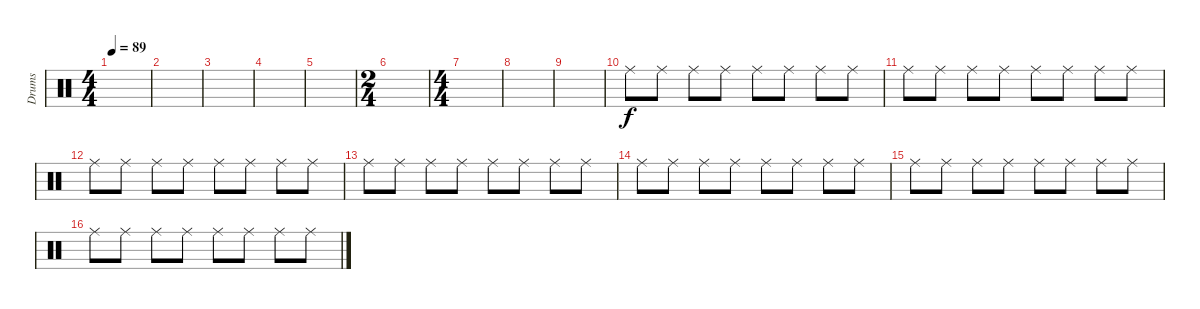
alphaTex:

\track ("Drums" "Drums") {instrument percussion}
\staff {score}
\articulation defaults
\ts (4 4)
\tempo 89
\clef neutral
\ks c
|
|
|
|
|
\ts (2 4)
|
\ts (4 4)
|
|
|
"Ride (middle)".8 "Ride (middle)".8 "Ride (middle)".8 "Ride (middle)".8 "Ride (middle)".8 "Ride (middle)".8 "Ride (middle)".8 "Ride (middle)".8 |
"Ride (middle)".8 "Ride (middle)".8 "Ride (middle)".8 "Ride (middle)".8 "Ride (middle)".8 "Ride (middle)".8 "Ride (middle)".8 "Ride (middle)".8 |
"Ride (middle)".8 "Ride (middle)".8 "Ride (middle)".8 "Ride (middle)".8 "Ride (middle)".8 "Ride (middle)".8 "Ride (middle)".8 "Ride (middle)".8 |
"Ride (middle)".8 "Ride (middle)".8 "Ride (middle)".8 "Ride (middle)".8 "Ride (middle)".8 "Ride (middle)".8 "Ride (middle)".8 "Ride (middle)".8 |
"Ride (middle)".8 "Ride (middle)".8 "Ride (middle)".8 "Ride (middle)".8 "Ride (middle)".8 "Ride (middle)".8 "Ride (middle)".8 "Ride (middle)".8 |
"Ride (middle)".8 "Ride (middle)".8 "Ride (middle)".8 "Ride (middle)".8 "Ride (middle)".8 "Ride (middle)".8 "Ride (middle)".8 "Ride (middle)".8 |
"Ride (middle)".8 "Ride (middle)".8 "Ride (middle)".8 "Ride (middle)".8 "Ride (middle)".8 "Ride (middle)".8 "Ride (middle)".8 "Ride (middle)".8
